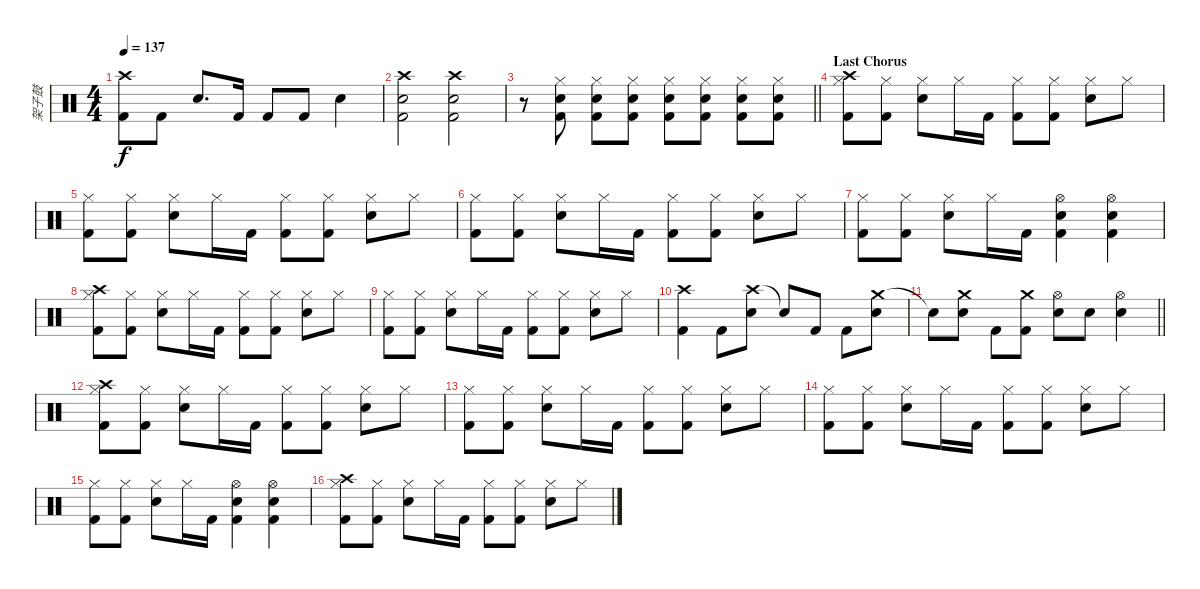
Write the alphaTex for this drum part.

\track ("架子鼓" "架子鼓") {instrument percussion}
\staff {score}
\articulation defaults
\ts (4 4)
\tempo 137
\clef neutral
\ks c
("Crash high (hit)" "Kick (hit) 2").8{dy f} "Kick (hit) 2".8 "Snare (hit) 2".8{d} "Kick (hit) 2".16 "Kick (hit) 2".8 "Kick (hit) 2".8 "Snare (hit) 2".4 |
("Crash high (hit)" "Snare (hit) 2" "Kick (hit) 2").2 ("Crash high (hit)" "Snare (hit) 2" "Kick (hit) 2").2 |
\barLineRight lightlight
r.8 ("Hi-Hat (closed)" "Snare (hit) 2" "Kick (hit) 2").8 ("Hi-Hat (closed)" "Snare (hit) 2" "Kick (hit) 2").8 ("Hi-Hat (closed)" "Snare (hit) 2" "Kick (hit) 2").8 ("Hi-Hat (closed)" "Snare (hit) 2" "Kick (hit) 2").8 ("Hi-Hat (closed)" "Snare (hit) 2" "Kick (hit) 2").8 ("Hi-Hat (closed)" "Snare (hit) 2" "Kick (hit) 2").8 ("Hi-Hat (closed)" "Snare (hit) 2" "Kick (hit) 2").8 |
\section ("" "Last Chorus")
("Hi-Hat (closed)" "Crash high (hit)" "Kick (hit) 2").8 ("Hi-Hat (closed)" "Kick (hit) 2").8 ("Hi-Hat (closed)" "Snare (hit) 2").8 "Hi-Hat (closed)".16 "Kick (hit) 2".16 ("Hi-Hat (closed)" "Kick (hit) 2").8 ("Hi-Hat (closed)" "Kick (hit) 2").8 ("Hi-Hat (closed)" "Snare (hit) 2").8 "Hi-Hat (closed)".8 |
("Hi-Hat (closed)" "Kick (hit) 2").8 ("Hi-Hat (closed)" "Kick (hit) 2").8 ("Hi-Hat (closed)" "Snare (hit) 2").8 "Hi-Hat (closed)".16 "Kick (hit) 2".16 ("Hi-Hat (closed)" "Kick (hit) 2").8 ("Hi-Hat (closed)" "Kick (hit) 2").8 ("Hi-Hat (closed)" "Snare (hit) 2").8 "Hi-Hat (closed)".8 |
("Hi-Hat (closed)" "Kick (hit) 2").8 ("Hi-Hat (closed)" "Kick (hit) 2").8 ("Hi-Hat (closed)" "Snare (hit) 2").8 "Hi-Hat (closed)".16 "Kick (hit) 2".16 ("Hi-Hat (closed)" "Kick (hit) 2").8 ("Hi-Hat (closed)" "Kick (hit) 2").8 ("Hi-Hat (closed)" "Snare (hit) 2").8 "Hi-Hat (closed)".8 |
("Hi-Hat (closed)" "Kick (hit) 2").8 ("Hi-Hat (closed)" "Kick (hit) 2").8 ("Hi-Hat (closed)" "Snare (hit) 2").8 "Hi-Hat (closed)".16 "Kick (hit) 2".16 ("Hi-Hat (open)" "Snare (hit) 2" "Kick (hit) 2").4 ("Hi-Hat (open)" "Snare (hit) 2" "Kick (hit) 2").4 |
("Hi-Hat (closed)" "Crash high (hit)" "Kick (hit) 2").8 ("Hi-Hat (closed)" "Kick (hit) 2").8 ("Hi-Hat (closed)" "Snare (hit) 2").8 "Hi-Hat (closed)".16 "Kick (hit) 2".16 ("Hi-Hat (closed)" "Kick (hit) 2").8 ("Hi-Hat (closed)" "Kick (hit) 2").8 ("Hi-Hat (closed)" "Snare (hit) 2").8 "Hi-Hat (closed)".8 |
("Hi-Hat (closed)" "Kick (hit) 2").8 ("Hi-Hat (closed)" "Kick (hit) 2").8 ("Hi-Hat (closed)" "Snare (hit) 2").8 "Hi-Hat (closed)".16 "Kick (hit) 2".16 ("Hi-Hat (closed)" "Kick (hit) 2").8 ("Hi-Hat (closed)" "Kick (hit) 2").8 ("Hi-Hat (closed)" "Snare (hit) 2").8 "Hi-Hat (closed)".8 |
("Crash high (hit)" "Kick (hit) 2").4 "Kick (hit) 2".8 ("Crash high (hit)" "Snare (hit) 2").8 "Snare (hit)"{t}.8 "Kick (hit) 2".8 "Kick (hit) 2".8 ("Crash medium (hit)" "Snare (hit) 2").8 |
\barLineRight lightlight "Snare (hit)"{t}.8
("Crash medium (hit)" "Snare (hit) 2").8 "Kick (hit) 2".8 ("Crash medium (hit)" "Kick (hit) 2").8 ("Hi-Hat (open)" "Snare (hit) 2").8 "Snare (hit) 2".8 ("Hi-Hat (open)" "Snare (hit) 2").4 |
("Hi-Hat (closed)" "Crash high (hit)" "Kick (hit) 2").8 ("Hi-Hat (closed)" "Kick (hit) 2").8 ("Hi-Hat (closed)" "Snare (hit) 2").8 "Hi-Hat (closed)".16 "Kick (hit) 2".16 ("Hi-Hat (closed)" "Kick (hit) 2").8 ("Hi-Hat (closed)" "Kick (hit) 2").8 ("Hi-Hat (closed)" "Snare (hit) 2").8 "Hi-Hat (closed)".8 |
("Hi-Hat (closed)" "Kick (hit) 2").8 ("Hi-Hat (closed)" "Kick (hit) 2").8 ("Hi-Hat (closed)" "Snare (hit) 2").8 "Hi-Hat (closed)".16 "Kick (hit) 2".16 ("Hi-Hat (closed)" "Kick (hit) 2").8 ("Hi-Hat (closed)" "Kick (hit) 2").8 ("Hi-Hat (closed)" "Snare (hit) 2").8 "Hi-Hat (closed)".8 |
("Hi-Hat (closed)" "Kick (hit) 2").8 ("Hi-Hat (closed)" "Kick (hit) 2").8 ("Hi-Hat (closed)" "Snare (hit) 2").8 "Hi-Hat (closed)".16 "Kick (hit) 2".16 ("Hi-Hat (closed)" "Kick (hit) 2").8 ("Hi-Hat (closed)" "Kick (hit) 2").8 ("Hi-Hat (closed)" "Snare (hit) 2").8 "Hi-Hat (closed)".8 |
("Hi-Hat (closed)" "Kick (hit) 2").8 ("Hi-Hat (closed)" "Kick (hit) 2").8 ("Hi-Hat (closed)" "Snare (hit) 2").8 "Hi-Hat (closed)".16 "Kick (hit) 2".16 ("Hi-Hat (open)" "Snare (hit) 2" "Kick (hit) 2").4 ("Hi-Hat (open)" "Snare (hit) 2" "Kick (hit) 2").4 |
("Hi-Hat (closed)" "Crash high (hit)" "Kick (hit) 2").8 ("Hi-Hat (closed)" "Kick (hit) 2").8 ("Hi-Hat (closed)" "Snare (hit) 2").8 "Hi-Hat (closed)".16 "Kick (hit) 2".16 ("Hi-Hat (closed)" "Kick (hit) 2").8 ("Hi-Hat (closed)" "Kick (hit) 2").8 ("Hi-Hat (closed)" "Snare (hit) 2").8 "Hi-Hat (closed)".8
